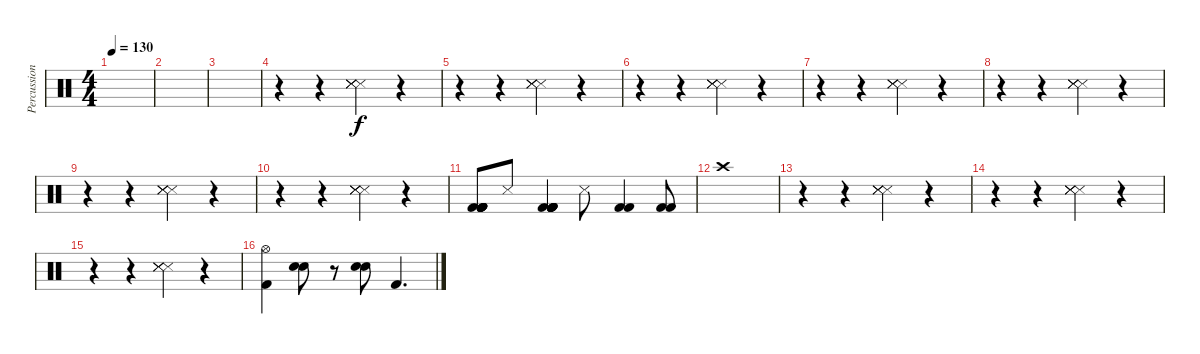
\track ("Percussion 2" "Percussion") {instrument percussion}
\staff {score}
\articulation defaults
\ts (4 4)
\tempo 130
\clef neutral
\ks c
|
|
|
r.4 r.4 ("Snare (side stick) 3" "Snare (side stick) 3" "Snare (side stick) 3" "Snare (side stick) 3").4 r.4 |
r.4 r.4 ("Snare (side stick) 3" "Snare (side stick) 3" "Snare (side stick) 3" "Snare (side stick) 3").4 r.4 |
r.4 r.4 ("Snare (side stick) 3" "Snare (side stick) 3" "Snare (side stick) 3" "Snare (side stick) 3").4 r.4 |
r.4 r.4 ("Snare (side stick) 3" "Snare (side stick) 3" "Snare (side stick) 3" "Snare (side stick) 3").4 r.4 |
r.4 r.4 ("Snare (side stick) 3" "Snare (side stick) 3" "Snare (side stick) 3" "Snare (side stick) 3").4 r.4 |
r.4 r.4 ("Snare (side stick) 3" "Snare (side stick) 3" "Snare (side stick) 3" "Snare (side stick) 3").4 r.4 |
r.4 r.4 ("Snare (side stick) 3" "Snare (side stick) 3" "Snare (side stick) 3" "Snare (side stick) 3").4 r.4 |
("Kick (hit) 2" "Kick (hit) 2" "Kick (hit) 2" "Kick (hit) 2" "Kick (hit) 2" "Kick (hit) 2").8 "Snare (side stick) 3".8 ("Kick (hit) 2" "Kick (hit) 2" "Kick (hit) 2" "Kick (hit) 2" "Kick (hit) 2" "Kick (hit) 2").4 "Snare (side stick) 3".8 ("Kick (hit) 2" "Kick (hit) 2").4 ("Kick (hit) 2" "Kick (hit) 2").8 |
"Crash high (hit)".1 |
r.4 r.4 ("Snare (side stick) 3" "Snare (side stick) 3" "Snare (side stick) 3" "Snare (side stick) 3").4 r.4 |
r.4 r.4 ("Snare (side stick) 3" "Snare (side stick) 3" "Snare (side stick) 3" "Snare (side stick) 3").4 r.4 |
r.4 r.4 ("Snare (side stick) 3" "Snare (side stick) 3" "Snare (side stick) 3" "Snare (side stick) 3").4 r.4 |
("Hi-Hat (open)" "Kick (hit) 2").4 ("Electric Snare (hit)" "Snare (hit) 2").8 r.8 ("Electric Snare (hit)" "Snare (hit) 2").8 "Kick (hit) 2".4{d}
